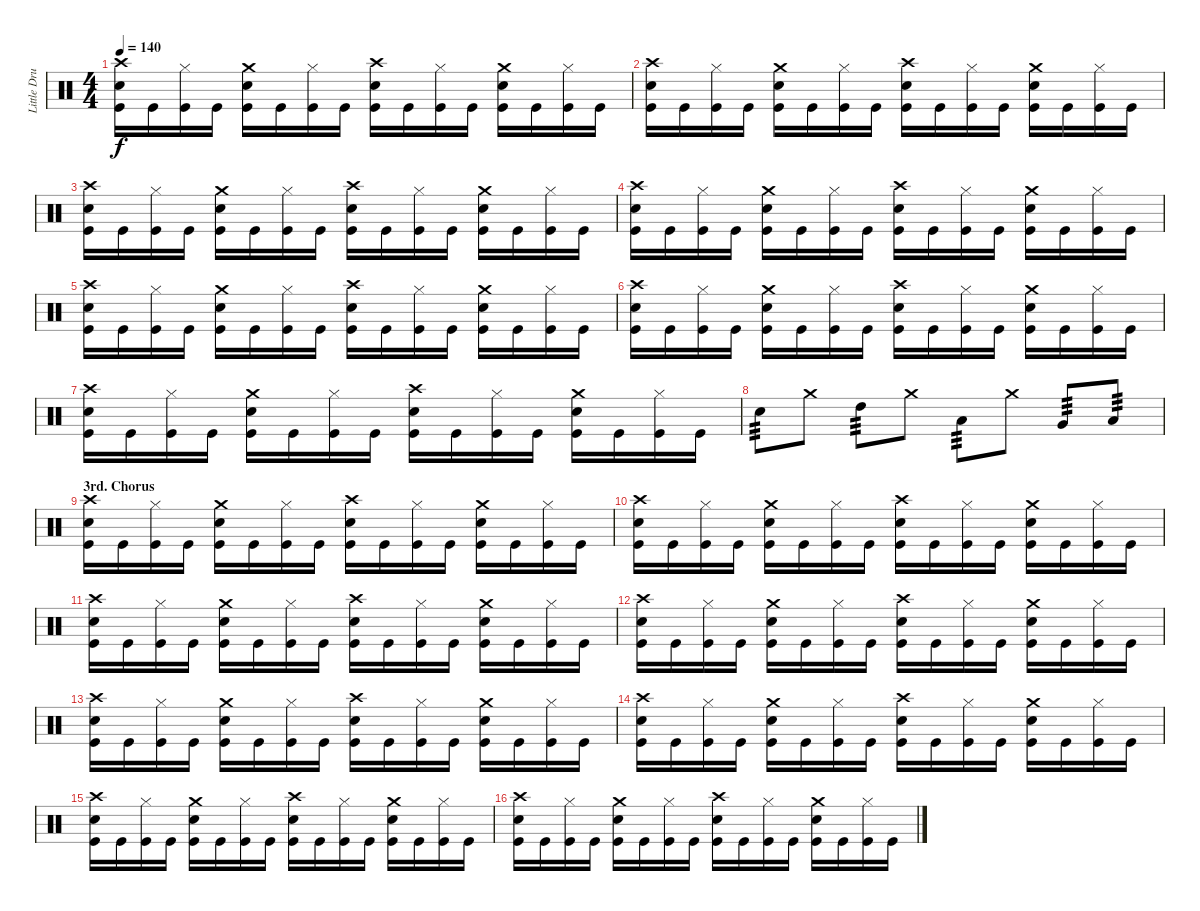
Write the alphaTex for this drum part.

\track ("Little Drummer Boy" "Little Dru") {instrument percussion}
\staff {score}
\articulation defaults
\ts (4 4)
\tempo 140
\clef neutral
\ks c
("Crash high (hit)" "Snare (hit) 2" "Kick (hit)").16{dy f} "Kick (hit)".16 ("Hi-Hat (closed)" "Kick (hit)").16 "Kick (hit)".16 ("Crash medium (hit)" "Snare (hit) 2" "Kick (hit)").16 "Kick (hit)".16 ("Hi-Hat (closed)" "Kick (hit)").16 "Kick (hit)".16 ("Crash high (hit)" "Snare (hit) 2" "Kick (hit)").16 "Kick (hit)".16 ("Hi-Hat (closed)" "Kick (hit)").16 "Kick (hit)".16 ("Crash medium (hit)" "Snare (hit) 2" "Kick (hit)").16 "Kick (hit)".16 ("Hi-Hat (closed)" "Kick (hit)").16 "Kick (hit)".16 |
("Crash high (hit)" "Snare (hit) 2" "Kick (hit)").16 "Kick (hit)".16 ("Hi-Hat (closed)" "Kick (hit)").16 "Kick (hit)".16 ("Crash medium (hit)" "Snare (hit) 2" "Kick (hit)").16 "Kick (hit)".16 ("Hi-Hat (closed)" "Kick (hit)").16 "Kick (hit)".16 ("Crash high (hit)" "Snare (hit) 2" "Kick (hit)").16 "Kick (hit)".16 ("Hi-Hat (closed)" "Kick (hit)").16 "Kick (hit)".16 ("Crash medium (hit)" "Snare (hit) 2" "Kick (hit)").16 "Kick (hit)".16 ("Hi-Hat (closed)" "Kick (hit)").16 "Kick (hit)".16 |
("Crash high (hit)" "Snare (hit) 2" "Kick (hit)").16 "Kick (hit)".16 ("Hi-Hat (closed)" "Kick (hit)").16 "Kick (hit)".16 ("Crash medium (hit)" "Snare (hit) 2" "Kick (hit)").16 "Kick (hit)".16 ("Hi-Hat (closed)" "Kick (hit)").16 "Kick (hit)".16 ("Crash high (hit)" "Snare (hit) 2" "Kick (hit)").16 "Kick (hit)".16 ("Hi-Hat (closed)" "Kick (hit)").16 "Kick (hit)".16 ("Crash medium (hit)" "Snare (hit) 2" "Kick (hit)").16 "Kick (hit)".16 ("Hi-Hat (closed)" "Kick (hit)").16 "Kick (hit)".16 |
("Crash high (hit)" "Snare (hit) 2" "Kick (hit)").16 "Kick (hit)".16 ("Hi-Hat (closed)" "Kick (hit)").16 "Kick (hit)".16 ("Crash medium (hit)" "Snare (hit) 2" "Kick (hit)").16 "Kick (hit)".16 ("Hi-Hat (closed)" "Kick (hit)").16 "Kick (hit)".16 ("Crash high (hit)" "Snare (hit) 2" "Kick (hit)").16 "Kick (hit)".16 ("Hi-Hat (closed)" "Kick (hit)").16 "Kick (hit)".16 ("Crash medium (hit)" "Snare (hit) 2" "Kick (hit)").16 "Kick (hit)".16 ("Hi-Hat (closed)" "Kick (hit)").16 "Kick (hit)".16 |
("Crash high (hit)" "Snare (hit) 2" "Kick (hit)").16 "Kick (hit)".16 ("Hi-Hat (closed)" "Kick (hit)").16 "Kick (hit)".16 ("Crash medium (hit)" "Snare (hit) 2" "Kick (hit)").16 "Kick (hit)".16 ("Hi-Hat (closed)" "Kick (hit)").16 "Kick (hit)".16 ("Crash high (hit)" "Snare (hit) 2" "Kick (hit)").16 "Kick (hit)".16 ("Hi-Hat (closed)" "Kick (hit)").16 "Kick (hit)".16 ("Crash medium (hit)" "Snare (hit) 2" "Kick (hit)").16 "Kick (hit)".16 ("Hi-Hat (closed)" "Kick (hit)").16 "Kick (hit)".16 |
("Crash high (hit)" "Snare (hit) 2" "Kick (hit)").16 "Kick (hit)".16 ("Hi-Hat (closed)" "Kick (hit)").16 "Kick (hit)".16 ("Crash medium (hit)" "Snare (hit) 2" "Kick (hit)").16 "Kick (hit)".16 ("Hi-Hat (closed)" "Kick (hit)").16 "Kick (hit)".16 ("Crash high (hit)" "Snare (hit) 2" "Kick (hit)").16 "Kick (hit)".16 ("Hi-Hat (closed)" "Kick (hit)").16 "Kick (hit)".16 ("Crash medium (hit)" "Snare (hit) 2" "Kick (hit)").16 "Kick (hit)".16 ("Hi-Hat (closed)" "Kick (hit)").16 "Kick (hit)".16 |
("Crash high (hit)" "Snare (hit) 2" "Kick (hit)").16 "Kick (hit)".16 ("Hi-Hat (closed)" "Kick (hit)").16 "Kick (hit)".16 ("Crash medium (hit)" "Snare (hit) 2" "Kick (hit)").16 "Kick (hit)".16 ("Hi-Hat (closed)" "Kick (hit)").16 "Kick (hit)".16 ("Crash high (hit)" "Snare (hit) 2" "Kick (hit)").16 "Kick (hit)".16 ("Hi-Hat (closed)" "Kick (hit)").16 "Kick (hit)".16 ("Crash medium (hit)" "Snare (hit) 2" "Kick (hit)").16 "Kick (hit)".16 ("Hi-Hat (closed)" "Kick (hit)").16 "Kick (hit)".16 |
"Snare (hit) 2".8{tp 3} "Crash medium (hit)".8 "High Tom (hit)".8{tp 3} "Crash medium (hit)".8 "Low Tom (hit)".8{tp 3} "Crash medium (hit)".8 "Very Low Tom (hit)".8{tp 3} "Low Floor Tom (hit)".8{tp 3} |
\section ("" "3rd. Chorus")
("Crash high (hit)" "Snare (hit) 2" "Kick (hit)").16 "Kick (hit)".16 ("Hi-Hat (closed)" "Kick (hit)").16 "Kick (hit)".16 ("Crash medium (hit)" "Snare (hit) 2" "Kick (hit)").16 "Kick (hit)".16 ("Hi-Hat (closed)" "Kick (hit)").16 "Kick (hit)".16 ("Crash high (hit)" "Snare (hit) 2" "Kick (hit)").16 "Kick (hit)".16 ("Hi-Hat (closed)" "Kick (hit)").16 "Kick (hit)".16 ("Crash medium (hit)" "Snare (hit) 2" "Kick (hit)").16 "Kick (hit)".16 ("Hi-Hat (closed)" "Kick (hit)").16 "Kick (hit)".16 |
("Crash high (hit)" "Snare (hit) 2" "Kick (hit)").16 "Kick (hit)".16 ("Hi-Hat (closed)" "Kick (hit)").16 "Kick (hit)".16 ("Crash medium (hit)" "Snare (hit) 2" "Kick (hit)").16 "Kick (hit)".16 ("Hi-Hat (closed)" "Kick (hit)").16 "Kick (hit)".16 ("Crash high (hit)" "Snare (hit) 2" "Kick (hit)").16 "Kick (hit)".16 ("Hi-Hat (closed)" "Kick (hit)").16 "Kick (hit)".16 ("Crash medium (hit)" "Snare (hit) 2" "Kick (hit)").16 "Kick (hit)".16 ("Hi-Hat (closed)" "Kick (hit)").16 "Kick (hit)".16 |
("Crash high (hit)" "Snare (hit) 2" "Kick (hit)").16 "Kick (hit)".16 ("Hi-Hat (closed)" "Kick (hit)").16 "Kick (hit)".16 ("Crash medium (hit)" "Snare (hit) 2" "Kick (hit)").16 "Kick (hit)".16 ("Hi-Hat (closed)" "Kick (hit)").16 "Kick (hit)".16 ("Crash high (hit)" "Snare (hit) 2" "Kick (hit)").16 "Kick (hit)".16 ("Hi-Hat (closed)" "Kick (hit)").16 "Kick (hit)".16 ("Crash medium (hit)" "Snare (hit) 2" "Kick (hit)").16 "Kick (hit)".16 ("Hi-Hat (closed)" "Kick (hit)").16 "Kick (hit)".16 |
("Crash high (hit)" "Snare (hit) 2" "Kick (hit)").16 "Kick (hit)".16 ("Hi-Hat (closed)" "Kick (hit)").16 "Kick (hit)".16 ("Crash medium (hit)" "Snare (hit) 2" "Kick (hit)").16 "Kick (hit)".16 ("Hi-Hat (closed)" "Kick (hit)").16 "Kick (hit)".16 ("Crash high (hit)" "Snare (hit) 2" "Kick (hit)").16 "Kick (hit)".16 ("Hi-Hat (closed)" "Kick (hit)").16 "Kick (hit)".16 ("Crash medium (hit)" "Snare (hit) 2" "Kick (hit)").16 "Kick (hit)".16 ("Hi-Hat (closed)" "Kick (hit)").16 "Kick (hit)".16 |
("Crash high (hit)" "Snare (hit) 2" "Kick (hit)").16 "Kick (hit)".16 ("Hi-Hat (closed)" "Kick (hit)").16 "Kick (hit)".16 ("Crash medium (hit)" "Snare (hit) 2" "Kick (hit)").16 "Kick (hit)".16 ("Hi-Hat (closed)" "Kick (hit)").16 "Kick (hit)".16 ("Crash high (hit)" "Snare (hit) 2" "Kick (hit)").16 "Kick (hit)".16 ("Hi-Hat (closed)" "Kick (hit)").16 "Kick (hit)".16 ("Crash medium (hit)" "Snare (hit) 2" "Kick (hit)").16 "Kick (hit)".16 ("Hi-Hat (closed)" "Kick (hit)").16 "Kick (hit)".16 |
("Crash high (hit)" "Snare (hit) 2" "Kick (hit)").16 "Kick (hit)".16 ("Hi-Hat (closed)" "Kick (hit)").16 "Kick (hit)".16 ("Crash medium (hit)" "Snare (hit) 2" "Kick (hit)").16 "Kick (hit)".16 ("Hi-Hat (closed)" "Kick (hit)").16 "Kick (hit)".16 ("Crash high (hit)" "Snare (hit) 2" "Kick (hit)").16 "Kick (hit)".16 ("Hi-Hat (closed)" "Kick (hit)").16 "Kick (hit)".16 ("Crash medium (hit)" "Snare (hit) 2" "Kick (hit)").16 "Kick (hit)".16 ("Hi-Hat (closed)" "Kick (hit)").16 "Kick (hit)".16 |
("Crash high (hit)" "Snare (hit) 2" "Kick (hit)").16 "Kick (hit)".16 ("Hi-Hat (closed)" "Kick (hit)").16 "Kick (hit)".16 ("Crash medium (hit)" "Snare (hit) 2" "Kick (hit)").16 "Kick (hit)".16 ("Hi-Hat (closed)" "Kick (hit)").16 "Kick (hit)".16 ("Crash high (hit)" "Snare (hit) 2" "Kick (hit)").16 "Kick (hit)".16 ("Hi-Hat (closed)" "Kick (hit)").16 "Kick (hit)".16 ("Crash medium (hit)" "Snare (hit) 2" "Kick (hit)").16 "Kick (hit)".16 ("Hi-Hat (closed)" "Kick (hit)").16 "Kick (hit)".16 |
("Crash high (hit)" "Snare (hit) 2" "Kick (hit)").16 "Kick (hit)".16 ("Hi-Hat (closed)" "Kick (hit)").16 "Kick (hit)".16 ("Crash medium (hit)" "Snare (hit) 2" "Kick (hit)").16 "Kick (hit)".16 ("Hi-Hat (closed)" "Kick (hit)").16 "Kick (hit)".16 ("Crash high (hit)" "Snare (hit) 2" "Kick (hit)").16 "Kick (hit)".16 ("Hi-Hat (closed)" "Kick (hit)").16 "Kick (hit)".16 ("Crash medium (hit)" "Snare (hit) 2" "Kick (hit)").16 "Kick (hit)".16 ("Hi-Hat (closed)" "Kick (hit)").16 "Kick (hit)".16
